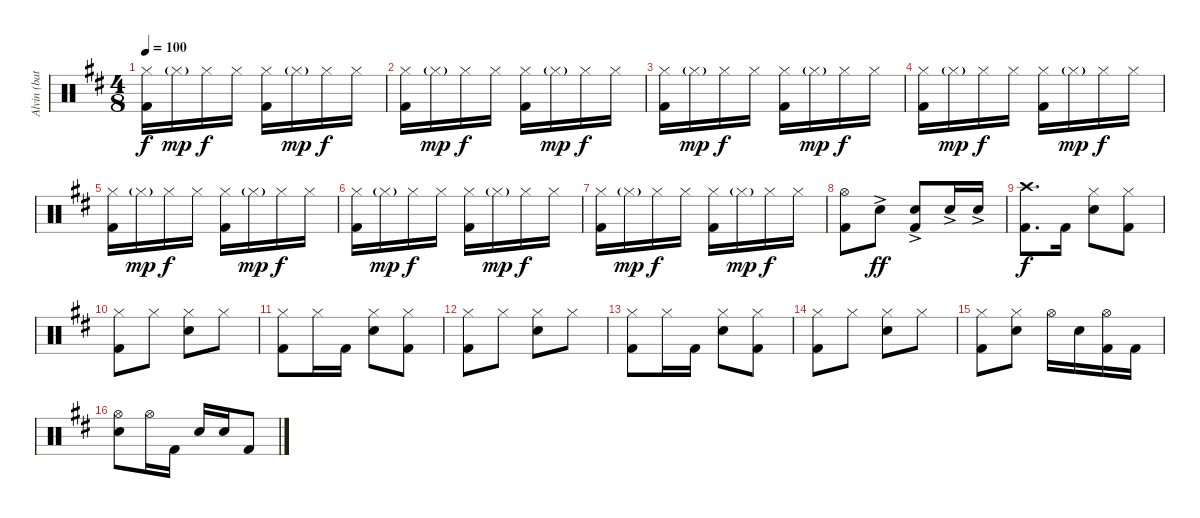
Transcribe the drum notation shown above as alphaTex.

\track ("Alvin (bateria)" "Alvin (bat") {instrument percussion}
\staff {score}
\articulation defaults
\ts (4 8)
\tempo 100
\clef neutral
\ks bminor
("Kick (hit) 2" "Hi-Hat (closed)").16{dy f} "Hi-Hat (closed)"{g}.16{dy mp} "Hi-Hat (closed)".16{dy f} "Hi-Hat (closed)".16 ("Hi-Hat (closed)" "Kick (hit) 2").16 "Hi-Hat (closed)"{g}.16{dy mp} "Hi-Hat (closed)".16{dy f} "Hi-Hat (closed)".16 |
("Kick (hit) 2" "Hi-Hat (closed)").16 "Hi-Hat (closed)"{g}.16{dy mp} "Hi-Hat (closed)".16{dy f} "Hi-Hat (closed)".16 ("Hi-Hat (closed)" "Kick (hit) 2").16 "Hi-Hat (closed)"{g}.16{dy mp} "Hi-Hat (closed)".16{dy f} "Hi-Hat (closed)".16 |
("Kick (hit) 2" "Hi-Hat (closed)").16 "Hi-Hat (closed)"{g}.16{dy mp} "Hi-Hat (closed)".16{dy f} "Hi-Hat (closed)".16 ("Hi-Hat (closed)" "Kick (hit) 2").16 "Hi-Hat (closed)"{g}.16{dy mp} "Hi-Hat (closed)".16{dy f} "Hi-Hat (closed)".16 |
("Kick (hit) 2" "Hi-Hat (closed)").16 "Hi-Hat (closed)"{g}.16{dy mp} "Hi-Hat (closed)".16{dy f} "Hi-Hat (closed)".16 ("Hi-Hat (closed)" "Kick (hit) 2").16 "Hi-Hat (closed)"{g}.16{dy mp} "Hi-Hat (closed)".16{dy f} "Hi-Hat (closed)".16 |
("Kick (hit) 2" "Hi-Hat (closed)").16 "Hi-Hat (closed)"{g}.16{dy mp} "Hi-Hat (closed)".16{dy f} "Hi-Hat (closed)".16 ("Hi-Hat (closed)" "Kick (hit) 2").16 "Hi-Hat (closed)"{g}.16{dy mp} "Hi-Hat (closed)".16{dy f} "Hi-Hat (closed)".16 |
("Kick (hit) 2" "Hi-Hat (closed)").16 "Hi-Hat (closed)"{g}.16{dy mp} "Hi-Hat (closed)".16{dy f} "Hi-Hat (closed)".16 ("Hi-Hat (closed)" "Kick (hit) 2").16 "Hi-Hat (closed)"{g}.16{dy mp} "Hi-Hat (closed)".16{dy f} "Hi-Hat (closed)".16 |
("Kick (hit) 2" "Hi-Hat (closed)").16 "Hi-Hat (closed)"{g}.16{dy mp} "Hi-Hat (closed)".16{dy f} "Hi-Hat (closed)".16 ("Hi-Hat (closed)" "Kick (hit) 2").16 "Hi-Hat (closed)"{g}.16{dy mp} "Hi-Hat (closed)".16{dy f} "Hi-Hat (closed)".16 |
("Hi-Hat (open)" "Kick (hit) 2").8 "Electric Snare (hit)"{ac}.8{dy ff} ("Electric Snare (hit)"{ac} "Kick (hit) 2").8 "Electric Snare (hit)"{ac}.16 "Electric Snare (hit)"{ac}.16 |
("Crash high (hit)" "Kick (hit) 2").8{d dy f} "Kick (hit) 2".16 ("Hi-Hat (closed)" "Electric Snare (hit)").8 ("Kick (hit) 2" "Hi-Hat (closed)").8 |
("Hi-Hat (closed)" "Kick (hit) 2").8 "Hi-Hat (closed)".8 ("Hi-Hat (closed)" "Electric Snare (hit)").8 "Hi-Hat (closed)".8 |
("Hi-Hat (closed)" "Kick (hit) 2").8 "Hi-Hat (closed)".16 "Kick (hit) 2".16 ("Hi-Hat (closed)" "Electric Snare (hit)").8 ("Hi-Hat (closed)" "Kick (hit) 2").8 |
("Hi-Hat (closed)" "Kick (hit) 2").8 "Hi-Hat (closed)".8 ("Hi-Hat (closed)" "Electric Snare (hit)").8 "Hi-Hat (closed)".8 |
("Hi-Hat (closed)" "Kick (hit) 2").8 "Hi-Hat (closed)".16 "Kick (hit) 2".16 ("Hi-Hat (closed)" "Electric Snare (hit)").8 ("Hi-Hat (closed)" "Kick (hit) 2").8 |
("Hi-Hat (closed)" "Kick (hit) 2").8 "Hi-Hat (closed)".8 ("Hi-Hat (closed)" "Electric Snare (hit)").8 "Hi-Hat (closed)".8 |
("Hi-Hat (closed)" "Kick (hit) 2").8 ("Hi-Hat (closed)" "Electric Snare (hit)").8 "Hi-Hat (open)".16 "Electric Snare (hit)".16 ("Hi-Hat (open)" "Kick (hit) 2").16 "Kick (hit) 2".16 |
("Hi-Hat (open)" "Electric Snare (hit)").8 "Hi-Hat (open)".16 "Kick (hit) 2".16 "Electric Snare (hit)".16 "Electric Snare (hit)".16 "Kick (hit) 2".8
